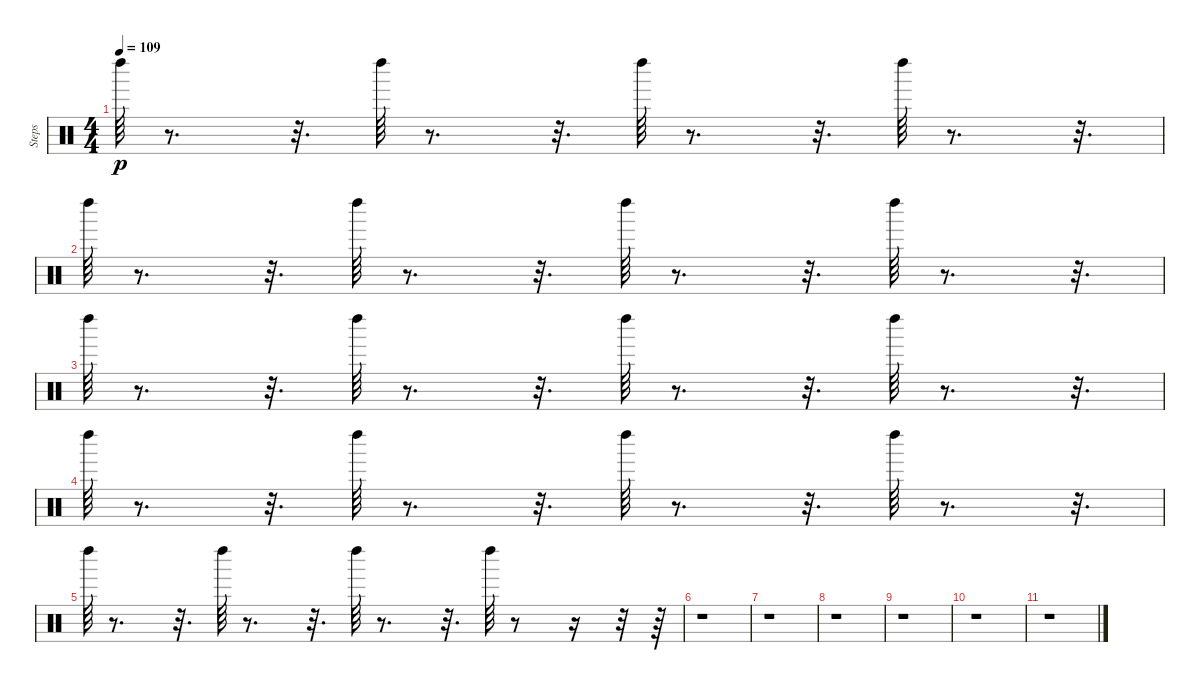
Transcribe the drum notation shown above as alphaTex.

\track ("Steps" "Steps") {instrument percussion}
\staff {score}
\articulation defaults
\ts (4 4)
\tempo 109
\clef neutral
\ks c "Left Maraca (hit)".64{dy p}
r.8{d} r.32{d} "Left Maraca (hit)".64 r.8{d} r.32{d} "Left Maraca (hit)".64 r.8{d} r.32{d} "Left Maraca (hit)".64 r.8{d} r.32{d} |
"Left Maraca (hit)".64 r.8{d} r.32{d} "Left Maraca (hit)".64 r.8{d} r.32{d} "Left Maraca (hit)".64 r.8{d} r.32{d} "Left Maraca (hit)".64 r.8{d} r.32{d} |
"Left Maraca (hit)".64 r.8{d} r.32{d} "Left Maraca (hit)".64 r.8{d} r.32{d} "Left Maraca (hit)".64 r.8{d} r.32{d} "Left Maraca (hit)".64 r.8{d} r.32{d} |
"Left Maraca (hit)".64 r.8{d} r.32{d} "Left Maraca (hit)".64 r.8{d} r.32{d} "Left Maraca (hit)".64 r.8{d} r.32{d} "Left Maraca (hit)".64 r.8{d} r.32{d} |
"Left Maraca (hit)".64 r.8{d} r.32{d} "Left Maraca (hit)".64 r.8{d} r.32{d} "Left Maraca (hit)".64 r.8{d} r.32{d} "Left Maraca (hit)".64 r.8 r.16 r.32 r.64 |
r.1 |
r.1 |
r.1 |
r.1 |
r.1 |
r.1
